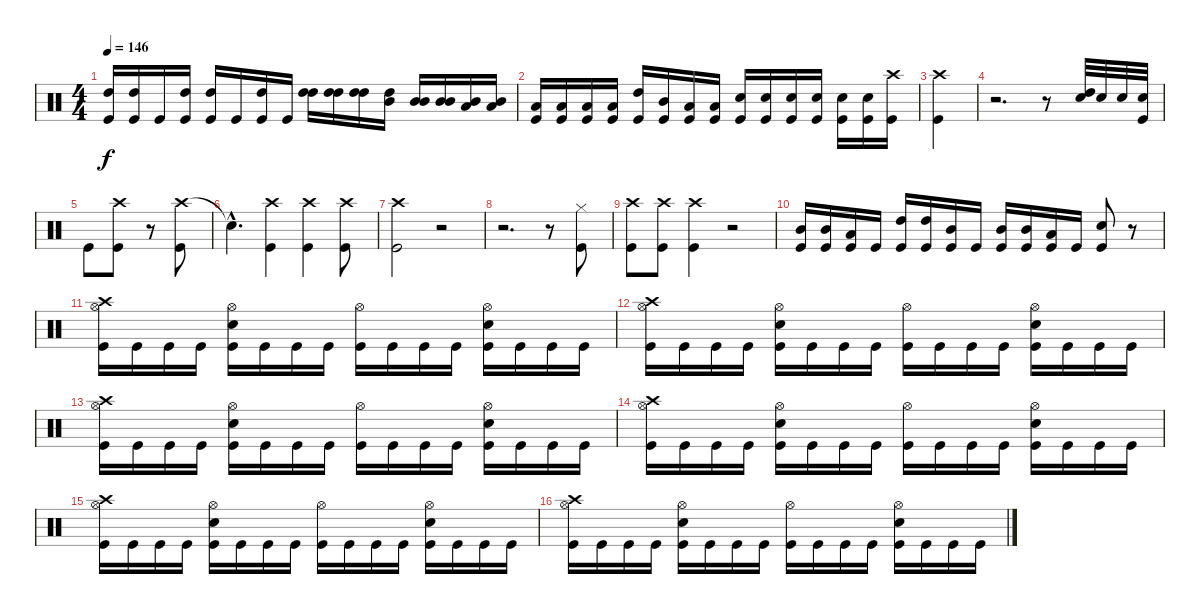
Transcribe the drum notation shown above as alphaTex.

\track "" {instrument percussion}
\staff {score}
\articulation defaults
\ts (4 4)
\tempo 146
\clef neutral
\ks c
("Kick (hit)" "High Tom (hit)").16{dy f} ("Kick (hit)" "High Tom (hit)").16 "Kick (hit)".16 ("Kick (hit)" "High Tom (hit)").16 ("Kick (hit)" "High Tom (hit)").16 "Kick (hit)".16 ("Kick (hit)" "High Tom (hit)").16 "Kick (hit)".16 ("High Tom (hit)" "High Tom (hit)").16 ("High Tom (hit)" "High Tom (hit)").16 ("High Tom (hit)" "High Tom (hit)").16 ("High Tom (hit)" "Mid Tom (hit)").16 ("Mid Tom (hit)" "Mid Tom (hit)").16 ("Mid Tom (hit)" "Mid Tom (hit)").16 ("Mid Tom (hit)" "Low Tom (hit)").16 ("Mid Tom (hit)" "Low Tom (hit)").16 |
("Low Tom (hit)" "Kick (hit)").16 ("Low Tom (hit)" "Kick (hit)").16 ("Low Tom (hit)" "Kick (hit)").16 ("Low Tom (hit)" "Kick (hit)").16 ("High Tom (hit)" "Kick (hit)").16 ("Mid Tom (hit)" "Kick (hit)").16 ("Low Tom (hit)" "Kick (hit)").16 ("Low Tom (hit)" "Kick (hit)").16 ("Kick (hit)" "Snare (hit) 2").16 ("Kick (hit)" "Snare (hit) 2").16 ("Kick (hit)" "Snare (hit) 2").16 ("Kick (hit)" "Snare (hit) 2").16 ("Kick (hit)" "Snare (hit) 2").16 ("Kick (hit)" "Snare (hit) 2").16 ("Kick (hit)" "Crash high (hit)").16 |
("Kick (hit)" "Crash high (hit)").4 |
r.2{d} r.8 ("High Tom (hit)" "Snare (hit) 2").32 "Snare (hit) 2".32 "Snare (hit) 2".32 ("Kick (hit)" "Snare (hit) 2").32 |
"Kick (hit)".8 ("Crash high (hit)" "Kick (hit)").8 r.8 ("Crash high (hit)" "Kick (hit)").8 |
"Snare (hit)"{hac t}.4{d} ("Kick (hit)" "Crash high (hit)").4 ("Kick (hit)" "Crash high (hit)").4 ("Kick (hit)" "Crash high (hit)").8 |
("Kick (hit)" "Crash high (hit)").2 r.2 |
r.2{d} r.8 ("Kick (hit)" "Hi-Hat (closed)").8 |
("Crash high (hit)" "Kick (hit)").8 ("Crash high (hit)" "Kick (hit)").8 ("Crash high (hit)" "Kick (hit)").4 r.2 |
("Kick (hit)" "Mid Tom (hit)").16 ("Kick (hit)" "Mid Tom (hit)").16 ("Kick (hit)" "Low Tom (hit)").16 "Kick (hit)".16 ("Kick (hit)" "High Tom (hit)").16 ("Kick (hit)" "High Tom (hit)").16 ("Kick (hit)" "Mid Tom (hit)").16 "Kick (hit)".16 ("Kick (hit)" "Mid Tom (hit)").16 ("Kick (hit)" "Mid Tom (hit)").16 ("Kick (hit)" "Low Tom (hit)").16 "Kick (hit)".16 ("Kick (hit)" "Snare (hit) 2").8 r.8 |
("Kick (hit)" "Crash high (hit)" "Hi-Hat (open)").16 "Kick (hit)".16 "Kick (hit)".16 "Kick (hit)".16 ("Kick (hit)" "Snare (hit) 2" "Hi-Hat (open)").16 "Kick (hit)".16 "Kick (hit)".16 "Kick (hit)".16 ("Kick (hit)" "Hi-Hat (open)").16 "Kick (hit)".16 "Kick (hit)".16 "Kick (hit)".16 ("Kick (hit)" "Snare (hit) 2" "Hi-Hat (open)").16 "Kick (hit)".16 "Kick (hit)".16 "Kick (hit)".16 |
("Kick (hit)" "Crash high (hit)" "Hi-Hat (open)").16 "Kick (hit)".16 "Kick (hit)".16 "Kick (hit)".16 ("Kick (hit)" "Snare (hit) 2" "Hi-Hat (open)").16 "Kick (hit)".16 "Kick (hit)".16 "Kick (hit)".16 ("Kick (hit)" "Hi-Hat (open)").16 "Kick (hit)".16 "Kick (hit)".16 "Kick (hit)".16 ("Kick (hit)" "Snare (hit) 2" "Hi-Hat (open)").16 "Kick (hit)".16 "Kick (hit)".16 "Kick (hit)".16 |
("Kick (hit)" "Crash high (hit)" "Hi-Hat (open)").16 "Kick (hit)".16 "Kick (hit)".16 "Kick (hit)".16 ("Kick (hit)" "Snare (hit) 2" "Hi-Hat (open)").16 "Kick (hit)".16 "Kick (hit)".16 "Kick (hit)".16 ("Kick (hit)" "Hi-Hat (open)").16 "Kick (hit)".16 "Kick (hit)".16 "Kick (hit)".16 ("Kick (hit)" "Snare (hit) 2" "Hi-Hat (open)").16 "Kick (hit)".16 "Kick (hit)".16 "Kick (hit)".16 |
("Kick (hit)" "Crash high (hit)" "Hi-Hat (open)").16 "Kick (hit)".16 "Kick (hit)".16 "Kick (hit)".16 ("Kick (hit)" "Snare (hit) 2" "Hi-Hat (open)").16 "Kick (hit)".16 "Kick (hit)".16 "Kick (hit)".16 ("Kick (hit)" "Hi-Hat (open)").16 "Kick (hit)".16 "Kick (hit)".16 "Kick (hit)".16 ("Kick (hit)" "Snare (hit) 2" "Hi-Hat (open)").16 "Kick (hit)".16 "Kick (hit)".16 "Kick (hit)".16 |
("Kick (hit)" "Crash high (hit)" "Hi-Hat (open)").16 "Kick (hit)".16 "Kick (hit)".16 "Kick (hit)".16 ("Kick (hit)" "Snare (hit) 2" "Hi-Hat (open)").16 "Kick (hit)".16 "Kick (hit)".16 "Kick (hit)".16 ("Kick (hit)" "Hi-Hat (open)").16 "Kick (hit)".16 "Kick (hit)".16 "Kick (hit)".16 ("Kick (hit)" "Snare (hit) 2" "Hi-Hat (open)").16 "Kick (hit)".16 "Kick (hit)".16 "Kick (hit)".16 |
("Kick (hit)" "Crash high (hit)" "Hi-Hat (open)").16 "Kick (hit)".16 "Kick (hit)".16 "Kick (hit)".16 ("Kick (hit)" "Snare (hit) 2" "Hi-Hat (open)").16 "Kick (hit)".16 "Kick (hit)".16 "Kick (hit)".16 ("Kick (hit)" "Hi-Hat (open)").16 "Kick (hit)".16 "Kick (hit)".16 "Kick (hit)".16 ("Kick (hit)" "Snare (hit) 2" "Hi-Hat (open)").16 "Kick (hit)".16 "Kick (hit)".16 "Kick (hit)".16
